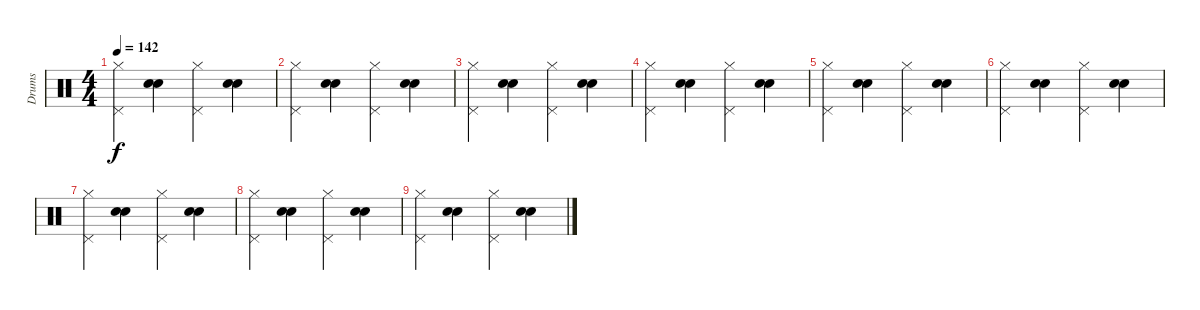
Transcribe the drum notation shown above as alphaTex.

\track ("Drums" "Drums") {instrument percussion}
\staff {score}
\articulation defaults
\ts (4 4)
\tempo 142
\clef neutral
\ks c
("Hi-Hat (closed)" "Pedal Hi-Hat (hit)").4{dy f} ("Snare (hit) 2" "Electric Snare (hit)").4 ("Hi-Hat (closed)" "Pedal Hi-Hat (hit)").4 ("Snare (hit) 2" "Electric Snare (hit)").4 |
("Hi-Hat (closed)" "Pedal Hi-Hat (hit)").4 ("Snare (hit) 2" "Electric Snare (hit)").4 ("Hi-Hat (closed)" "Pedal Hi-Hat (hit)").4 ("Snare (hit) 2" "Electric Snare (hit)").4 |
("Hi-Hat (closed)" "Pedal Hi-Hat (hit)").4 ("Snare (hit) 2" "Electric Snare (hit)").4 ("Hi-Hat (closed)" "Pedal Hi-Hat (hit)").4 ("Snare (hit) 2" "Electric Snare (hit)").4 |
("Hi-Hat (closed)" "Pedal Hi-Hat (hit)").4 ("Snare (hit) 2" "Electric Snare (hit)").4 ("Hi-Hat (closed)" "Pedal Hi-Hat (hit)").4 ("Snare (hit) 2" "Electric Snare (hit)").4 |
("Hi-Hat (closed)" "Pedal Hi-Hat (hit)").4 ("Snare (hit) 2" "Electric Snare (hit)").4 ("Hi-Hat (closed)" "Pedal Hi-Hat (hit)").4 ("Snare (hit) 2" "Electric Snare (hit)").4 |
("Hi-Hat (closed)" "Pedal Hi-Hat (hit)").4 ("Snare (hit) 2" "Electric Snare (hit)").4 ("Hi-Hat (closed)" "Pedal Hi-Hat (hit)").4 ("Snare (hit) 2" "Electric Snare (hit)").4 |
("Hi-Hat (closed)" "Pedal Hi-Hat (hit)").4 ("Snare (hit) 2" "Electric Snare (hit)").4 ("Hi-Hat (closed)" "Pedal Hi-Hat (hit)").4 ("Snare (hit) 2" "Electric Snare (hit)").4 |
("Hi-Hat (closed)" "Pedal Hi-Hat (hit)").4 ("Snare (hit) 2" "Electric Snare (hit)").4 ("Hi-Hat (closed)" "Pedal Hi-Hat (hit)").4 ("Snare (hit) 2" "Electric Snare (hit)").4 |
("Hi-Hat (closed)" "Pedal Hi-Hat (hit)").4 ("Snare (hit) 2" "Electric Snare (hit)").4 ("Hi-Hat (closed)" "Pedal Hi-Hat (hit)").4 ("Snare (hit) 2" "Electric Snare (hit)").4
